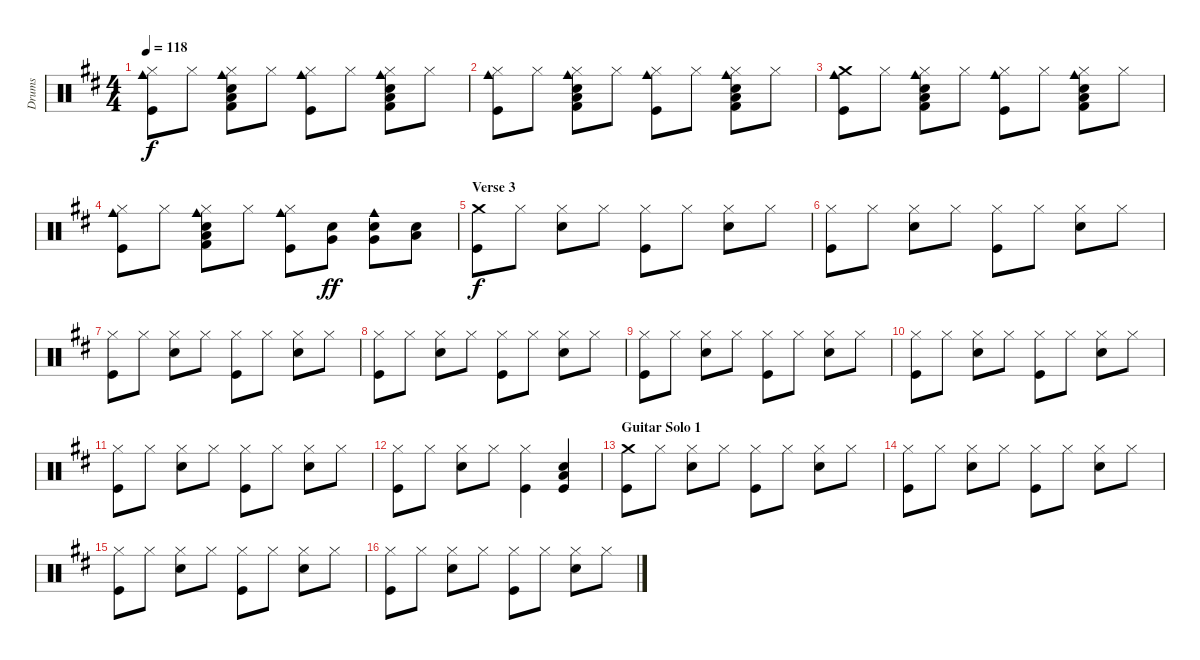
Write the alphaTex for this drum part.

\track ("Drums" "Drums") {instrument percussion}
\staff {score}
\articulation defaults
\ts (4 4)
\tempo 118
\clef neutral
\ks d
("Hi-Hat (closed)" "Cowbell medium (hit)" "Kick (hit)").8{dy f} "Hi-Hat (closed)".8 ("Hi-Hat (closed)" "Electric Snare (hit)" "Low Tom (hit)" "Cowbell medium (hit)" "Kick (hit) 2").8 "Hi-Hat (closed)".8 ("Hi-Hat (closed)" "Cowbell medium (hit)" "Kick (hit)").8 "Hi-Hat (closed)".8 ("Hi-Hat (closed)" "Electric Snare (hit)" "Low Tom (hit)" "Cowbell medium (hit)" "Kick (hit) 2").8 "Hi-Hat (closed)".8 |
("Hi-Hat (closed)" "Cowbell medium (hit)" "Kick (hit)").8 "Hi-Hat (closed)".8 ("Hi-Hat (closed)" "Electric Snare (hit)" "Low Tom (hit)" "Cowbell medium (hit)" "Kick (hit) 2").8 "Hi-Hat (closed)".8 ("Hi-Hat (closed)" "Cowbell medium (hit)" "Kick (hit)").8 "Hi-Hat (closed)".8 ("Hi-Hat (closed)" "Electric Snare (hit)" "Low Tom (hit)" "Cowbell medium (hit)" "Kick (hit) 2").8 "Hi-Hat (closed)".8 |
("Crash medium (hit)" "Cowbell medium (hit)" "Kick (hit)").8 "Hi-Hat (closed)".8 ("Hi-Hat (closed)" "Electric Snare (hit)" "Low Tom (hit)" "Cowbell medium (hit)" "Kick (hit) 2").8 "Hi-Hat (closed)".8 ("Hi-Hat (closed)" "Cowbell medium (hit)" "Kick (hit)").8 "Hi-Hat (closed)".8 ("Hi-Hat (closed)" "Electric Snare (hit)" "Low Tom (hit)" "Cowbell medium (hit)" "Kick (hit) 2").8 "Hi-Hat (closed)".8 |
("Hi-Hat (closed)" "Cowbell medium (hit)" "Kick (hit)").8 "Hi-Hat (closed)".8 ("Hi-Hat (closed)" "Electric Snare (hit)" "Low Tom (hit)" "Cowbell medium (hit)" "Kick (hit) 2").8 "Hi-Hat (closed)".8 ("Hi-Hat (closed)" "Cowbell medium (hit)" "Kick (hit)").8 ("Electric Snare (hit)" "Very Low Tom (hit)").8{dy ff} ("Electric Snare (hit)" "Very Low Tom (hit)" "Cowbell medium (hit)").8 ("Electric Snare (hit)" "Low Tom (hit)").8 |
\section ("" "Verse 3")
("Crash medium (hit)" "Kick (hit)").8{dy f} "Hi-Hat (closed)".8 ("Hi-Hat (closed)" "Electric Snare (hit)").8 "Hi-Hat (closed)".8 ("Hi-Hat (closed)" "Kick (hit)").8 "Hi-Hat (closed)".8 ("Hi-Hat (closed)" "Electric Snare (hit)").8 "Hi-Hat (closed)".8 |
("Hi-Hat (closed)" "Kick (hit)").8 "Hi-Hat (closed)".8 ("Hi-Hat (closed)" "Electric Snare (hit)").8 "Hi-Hat (closed)".8 ("Hi-Hat (closed)" "Kick (hit)").8 "Hi-Hat (closed)".8 ("Hi-Hat (closed)" "Electric Snare (hit)").8 "Hi-Hat (closed)".8 |
("Hi-Hat (closed)" "Kick (hit)").8 "Hi-Hat (closed)".8 ("Hi-Hat (closed)" "Electric Snare (hit)").8 "Hi-Hat (closed)".8 ("Hi-Hat (closed)" "Kick (hit)").8 "Hi-Hat (closed)".8 ("Hi-Hat (closed)" "Electric Snare (hit)").8 "Hi-Hat (closed)".8 |
("Hi-Hat (closed)" "Kick (hit)").8 "Hi-Hat (closed)".8 ("Hi-Hat (closed)" "Electric Snare (hit)").8 "Hi-Hat (closed)".8 ("Hi-Hat (closed)" "Kick (hit)").8 "Hi-Hat (closed)".8 ("Hi-Hat (closed)" "Electric Snare (hit)").8 "Hi-Hat (closed)".8 |
("Hi-Hat (closed)" "Kick (hit)").8 "Hi-Hat (closed)".8 ("Hi-Hat (closed)" "Electric Snare (hit)").8 "Hi-Hat (closed)".8 ("Hi-Hat (closed)" "Kick (hit)").8 "Hi-Hat (closed)".8 ("Hi-Hat (closed)" "Electric Snare (hit)").8 "Hi-Hat (closed)".8 |
("Hi-Hat (closed)" "Kick (hit)").8 "Hi-Hat (closed)".8 ("Hi-Hat (closed)" "Electric Snare (hit)").8 "Hi-Hat (closed)".8 ("Hi-Hat (closed)" "Kick (hit)").8 "Hi-Hat (closed)".8 ("Hi-Hat (closed)" "Electric Snare (hit)").8 "Hi-Hat (closed)".8 |
("Hi-Hat (closed)" "Kick (hit)").8 "Hi-Hat (closed)".8 ("Hi-Hat (closed)" "Electric Snare (hit)").8 "Hi-Hat (closed)".8 ("Hi-Hat (closed)" "Kick (hit)").8 "Hi-Hat (closed)".8 ("Hi-Hat (closed)" "Electric Snare (hit)").8 "Hi-Hat (closed)".8 |
("Hi-Hat (closed)" "Kick (hit)").8 "Hi-Hat (closed)".8 ("Hi-Hat (closed)" "Electric Snare (hit)").8 "Hi-Hat (closed)".8 ("Hi-Hat (closed)" "Kick (hit)").4 ("Electric Snare (hit)" "Low Tom (hit)" "Kick (hit)").4 |
\section ("" "Guitar Solo 1")
("Crash medium (hit)" "Kick (hit)").8 "Hi-Hat (closed)".8 ("Hi-Hat (closed)" "Electric Snare (hit)").8 "Hi-Hat (closed)".8 ("Hi-Hat (closed)" "Kick (hit)").8 "Hi-Hat (closed)".8 ("Hi-Hat (closed)" "Electric Snare (hit)").8 "Hi-Hat (closed)".8 |
("Hi-Hat (closed)" "Kick (hit)").8 "Hi-Hat (closed)".8 ("Hi-Hat (closed)" "Electric Snare (hit)").8 "Hi-Hat (closed)".8 ("Hi-Hat (closed)" "Kick (hit)").8 "Hi-Hat (closed)".8 ("Hi-Hat (closed)" "Electric Snare (hit)").8 "Hi-Hat (closed)".8 |
("Hi-Hat (closed)" "Kick (hit)").8 "Hi-Hat (closed)".8 ("Hi-Hat (closed)" "Electric Snare (hit)").8 "Hi-Hat (closed)".8 ("Hi-Hat (closed)" "Kick (hit)").8 "Hi-Hat (closed)".8 ("Hi-Hat (closed)" "Electric Snare (hit)").8 "Hi-Hat (closed)".8 |
("Hi-Hat (closed)" "Kick (hit)").8 "Hi-Hat (closed)".8 ("Hi-Hat (closed)" "Electric Snare (hit)").8 "Hi-Hat (closed)".8 ("Hi-Hat (closed)" "Kick (hit)").8 "Hi-Hat (closed)".8 ("Hi-Hat (closed)" "Electric Snare (hit)").8 "Hi-Hat (closed)".8
